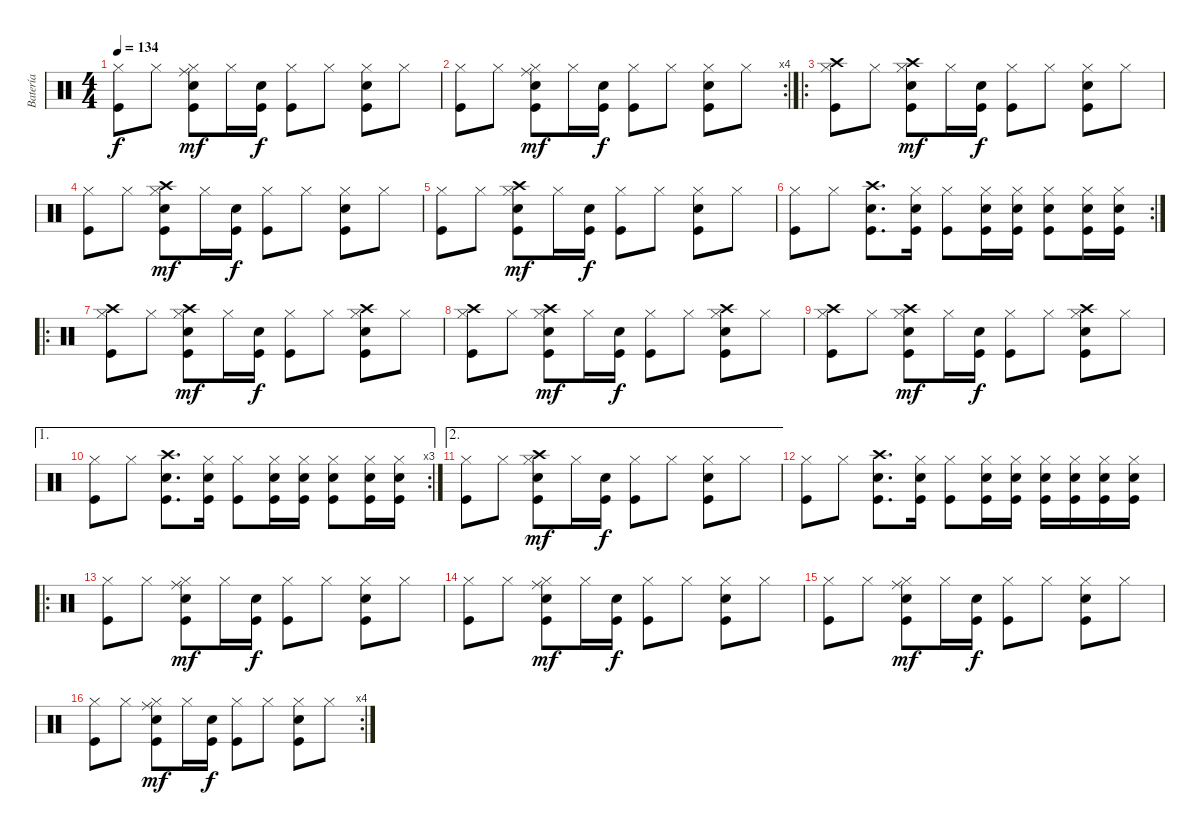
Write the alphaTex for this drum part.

\track ("Batería" "Batería") {instrument percussion}
\staff {score}
\articulation defaults
\ts (4 4)
\tempo 134
\clef neutral
\ks c
("Hi-Hat (closed)" "Kick (hit)").8{dy f} "Hi-Hat (closed)".8 ("Snare (hit) 2" "Ride (middle)" "Kick (hit)" "Hi-Hat (closed)").8{dy mf} "Hi-Hat (closed)".16 ("Snare (hit) 2" "Kick (hit)").16{dy f} ("Hi-Hat (closed)" "Kick (hit)").8 "Hi-Hat (closed)".8 ("Hi-Hat (closed)" "Snare (hit) 2" "Kick (hit)").8 "Hi-Hat (closed)".8 |
\rc 4
("Hi-Hat (closed)" "Kick (hit)").8 "Hi-Hat (closed)".8 ("Snare (hit) 2" "Ride (middle)" "Kick (hit)" "Hi-Hat (closed)").8{dy mf} "Hi-Hat (closed)".16 ("Snare (hit) 2" "Kick (hit)").16{dy f} ("Hi-Hat (closed)" "Kick (hit)").8 "Hi-Hat (closed)".8 ("Hi-Hat (closed)" "Snare (hit) 2" "Kick (hit)").8 "Hi-Hat (closed)".8 |
\ro
("Crash high (hit)" "Kick (hit)" "Hi-Hat (closed)").8 "Hi-Hat (closed)".8 ("Snare (hit) 2" "Crash high (hit)" "Kick (hit)" "Hi-Hat (closed)").8{dy mf} "Hi-Hat (closed)".16 ("Snare (hit) 2" "Kick (hit)").16{dy f} ("Hi-Hat (closed)" "Kick (hit)").8 "Hi-Hat (closed)".8 ("Hi-Hat (closed)" "Snare (hit) 2" "Kick (hit)").8 "Hi-Hat (closed)".8 |
("Hi-Hat (closed)" "Kick (hit)").8 "Hi-Hat (closed)".8 ("Snare (hit) 2" "Crash high (hit)" "Kick (hit)" "Hi-Hat (closed)").8{dy mf} "Hi-Hat (closed)".16 ("Snare (hit) 2" "Kick (hit)").16{dy f} ("Hi-Hat (closed)" "Kick (hit)").8 "Hi-Hat (closed)".8 ("Hi-Hat (closed)" "Snare (hit) 2" "Kick (hit)").8 "Hi-Hat (closed)".8 |
("Hi-Hat (closed)" "Kick (hit)").8 "Hi-Hat (closed)".8 ("Snare (hit) 2" "Crash high (hit)" "Kick (hit)" "Hi-Hat (closed)").8{dy mf} "Hi-Hat (closed)".16 ("Snare (hit) 2" "Kick (hit)").16{dy f} ("Hi-Hat (closed)" "Kick (hit)").8 "Hi-Hat (closed)".8 ("Hi-Hat (closed)" "Snare (hit) 2" "Kick (hit)").8 "Hi-Hat (closed)".8 |
\rc 2
("Hi-Hat (closed)" "Kick (hit)").8 "Hi-Hat (closed)".8 ("Snare (hit) 2" "Crash high (hit)" "Kick (hit)").8{d} ("Hi-Hat (closed)" "Snare (hit) 2" "Kick (hit)").16 ("Hi-Hat (closed)" "Kick (hit)").8 ("Hi-Hat (closed)" "Snare (hit) 2" "Kick (hit)").16 ("Hi-Hat (closed)" "Snare (hit) 2" "Kick (hit)").16 ("Hi-Hat (closed)" "Snare (hit) 2" "Kick (hit)").8 ("Hi-Hat (closed)" "Snare (hit) 2" "Kick (hit)").16 ("Hi-Hat (closed)" "Snare (hit) 2" "Kick (hit)").16 |
\ro
("Crash high (hit)" "Kick (hit)" "Hi-Hat (closed)").8 "Hi-Hat (closed)".8 ("Snare (hit) 2" "Crash high (hit)" "Kick (hit)" "Hi-Hat (closed)").8{dy mf} "Hi-Hat (closed)".16 ("Snare (hit) 2" "Kick (hit)").16{dy f} ("Hi-Hat (closed)" "Kick (hit)").8 "Hi-Hat (closed)".8 ("Hi-Hat (closed)" "Snare (hit) 2" "Kick (hit)" "Crash high (hit)").8 "Hi-Hat (closed)".8 |
("Crash high (hit)" "Kick (hit)" "Hi-Hat (closed)").8 "Hi-Hat (closed)".8 ("Snare (hit) 2" "Crash high (hit)" "Kick (hit)" "Hi-Hat (closed)").8{dy mf} "Hi-Hat (closed)".16 ("Snare (hit) 2" "Kick (hit)").16{dy f} ("Hi-Hat (closed)" "Kick (hit)").8 "Hi-Hat (closed)".8 ("Hi-Hat (closed)" "Snare (hit) 2" "Kick (hit)" "Crash high (hit)").8 "Hi-Hat (closed)".8 |
("Crash high (hit)" "Kick (hit)" "Hi-Hat (closed)").8 "Hi-Hat (closed)".8 ("Snare (hit) 2" "Crash high (hit)" "Kick (hit)" "Hi-Hat (closed)").8{dy mf} "Hi-Hat (closed)".16 ("Snare (hit) 2" "Kick (hit)").16{dy f} ("Hi-Hat (closed)" "Kick (hit)").8 "Hi-Hat (closed)".8 ("Hi-Hat (closed)" "Snare (hit) 2" "Kick (hit)" "Crash high (hit)").8 "Hi-Hat (closed)".8 |
\ae 1
\rc 3
("Hi-Hat (closed)" "Kick (hit)").8 "Hi-Hat (closed)".8 ("Snare (hit) 2" "Crash high (hit)" "Kick (hit)").8{d} ("Hi-Hat (closed)" "Snare (hit) 2" "Kick (hit)").16 ("Hi-Hat (closed)" "Kick (hit)").8 ("Hi-Hat (closed)" "Snare (hit) 2" "Kick (hit)").16 ("Hi-Hat (closed)" "Snare (hit) 2" "Kick (hit)").16 ("Hi-Hat (closed)" "Snare (hit) 2" "Kick (hit)").8 ("Hi-Hat (closed)" "Snare (hit) 2" "Kick (hit)").16 ("Hi-Hat (closed)" "Snare (hit) 2" "Kick (hit)").16 |
\ae 2
("Hi-Hat (closed)" "Kick (hit)").8 "Hi-Hat (closed)".8 ("Snare (hit) 2" "Crash high (hit)" "Kick (hit)" "Hi-Hat (closed)").8{dy mf} "Hi-Hat (closed)".16 ("Snare (hit) 2" "Kick (hit)").16{dy f} ("Hi-Hat (closed)" "Kick (hit)").8 "Hi-Hat (closed)".8 ("Hi-Hat (closed)" "Snare (hit) 2" "Kick (hit)").8 "Hi-Hat (closed)".8 |
("Hi-Hat (closed)" "Kick (hit)").8 "Hi-Hat (closed)".8 ("Snare (hit) 2" "Crash high (hit)" "Kick (hit)").8{d} ("Hi-Hat (closed)" "Snare (hit) 2" "Kick (hit)").16 ("Hi-Hat (closed)" "Kick (hit)").8 ("Hi-Hat (closed)" "Snare (hit) 2" "Kick (hit)").16 ("Hi-Hat (closed)" "Snare (hit) 2" "Kick (hit)").16 ("Hi-Hat (closed)" "Snare (hit) 2" "Kick (hit)").16 ("Hi-Hat (closed)" "Snare (hit) 2" "Kick (hit)").16 ("Hi-Hat (closed)" "Snare (hit) 2" "Kick (hit)").16 ("Hi-Hat (closed)" "Snare (hit) 2" "Kick (hit)").16 |
\ro
("Hi-Hat (closed)" "Kick (hit)").8 "Hi-Hat (closed)".8 ("Snare (hit) 2" "Ride (middle)" "Kick (hit)" "Hi-Hat (closed)").8{dy mf} "Hi-Hat (closed)".16 ("Snare (hit) 2" "Kick (hit)").16{dy f} ("Hi-Hat (closed)" "Kick (hit)").8 "Hi-Hat (closed)".8 ("Hi-Hat (closed)" "Snare (hit) 2" "Kick (hit)").8 "Hi-Hat (closed)".8 |
("Hi-Hat (closed)" "Kick (hit)").8 "Hi-Hat (closed)".8 ("Snare (hit) 2" "Ride (middle)" "Kick (hit)" "Hi-Hat (closed)").8{dy mf} "Hi-Hat (closed)".16 ("Snare (hit) 2" "Kick (hit)").16{dy f} ("Hi-Hat (closed)" "Kick (hit)").8 "Hi-Hat (closed)".8 ("Hi-Hat (closed)" "Snare (hit) 2" "Kick (hit)").8 "Hi-Hat (closed)".8 |
("Hi-Hat (closed)" "Kick (hit)").8 "Hi-Hat (closed)".8 ("Snare (hit) 2" "Ride (middle)" "Kick (hit)" "Hi-Hat (closed)").8{dy mf} "Hi-Hat (closed)".16 ("Snare (hit) 2" "Kick (hit)").16{dy f} ("Hi-Hat (closed)" "Kick (hit)").8 "Hi-Hat (closed)".8 ("Hi-Hat (closed)" "Snare (hit) 2" "Kick (hit)").8 "Hi-Hat (closed)".8 |
\rc 4
("Hi-Hat (closed)" "Kick (hit)").8 "Hi-Hat (closed)".8 ("Snare (hit) 2" "Ride (middle)" "Kick (hit)" "Hi-Hat (closed)").8{dy mf} "Hi-Hat (closed)".16 ("Snare (hit) 2" "Kick (hit)").16{dy f} ("Hi-Hat (closed)" "Kick (hit)").8 "Hi-Hat (closed)".8 ("Hi-Hat (closed)" "Snare (hit) 2" "Kick (hit)").8 "Hi-Hat (closed)".8
